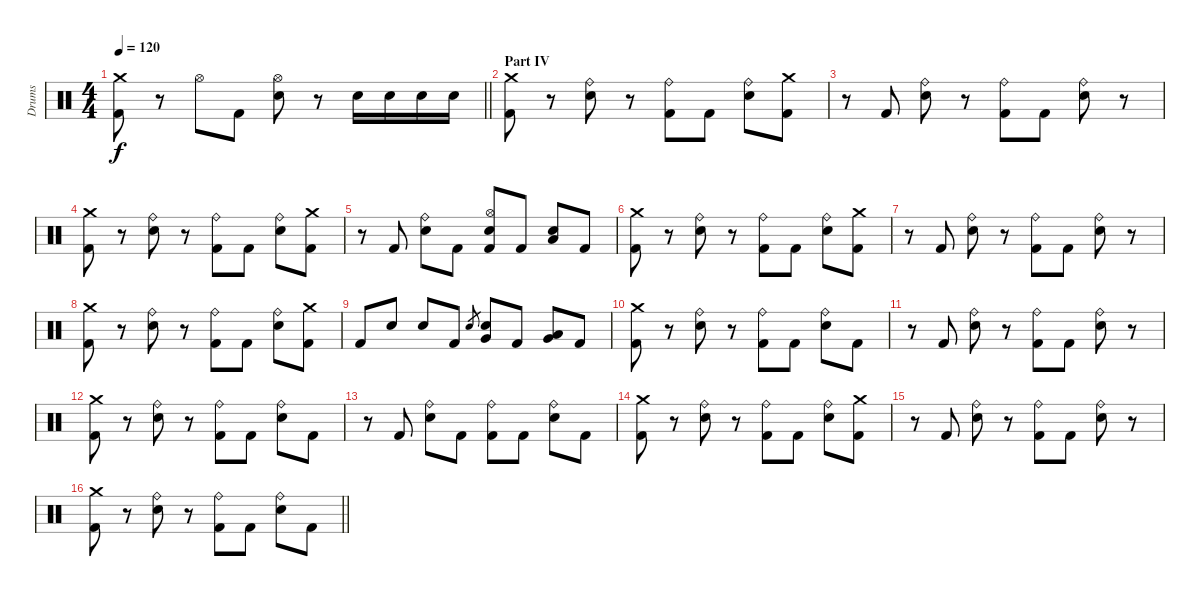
\track ("Drums" "Drums") {instrument percussion}
\staff {score}
\articulation defaults
\ts (4 4)
\tempo 120
\clef neutral
\barLineRight lightlight
\ks c
("Crash medium (hit)" "Kick (hit) 2").8{dy f} r.8 "Hi-Hat (open)".8 "Kick (hit) 2".8 ("Hi-Hat (open)" "Electric Snare (hit)").8 r.8 "Electric Snare (hit)".16 "Electric Snare (hit)".16 "Electric Snare (hit)".16 "Electric Snare (hit)".16 |
\section ("" "Part IV")
("Crash medium (hit)" "Kick (hit) 2").8 r.8 ("Ride (bell)" "Electric Snare (hit)").8 r.8 ("Ride (bell)" "Kick (hit) 2").8 "Kick (hit) 2".8 ("Ride (bell)" "Electric Snare (hit)").8 ("Crash medium (hit)" "Kick (hit) 2").8 |
r.8 "Kick (hit) 2".8 ("Ride (bell)" "Electric Snare (hit)").8 r.8 ("Ride (bell)" "Kick (hit) 2").8 "Kick (hit) 2".8 ("Ride (bell)" "Electric Snare (hit)").8 r.8 |
("Crash medium (hit)" "Kick (hit) 2").8 r.8 ("Ride (bell)" "Electric Snare (hit)").8 r.8 ("Ride (bell)" "Kick (hit) 2").8 "Kick (hit) 2".8 ("Ride (bell)" "Electric Snare (hit)").8 ("Crash medium (hit)" "Kick (hit) 2").8 |
r.8 "Kick (hit) 2".8 ("Ride (bell)" "Electric Snare (hit)").8 "Kick (hit) 2".8 ("Hi-Hat (open)" "Electric Snare (hit)" "Kick (hit) 2").8 "Kick (hit) 2".8 ("Electric Snare (hit)" "Low Floor Tom (hit)").8 "Kick (hit) 2".8 |
("Crash medium (hit)" "Kick (hit) 2").8 r.8 ("Ride (bell)" "Electric Snare (hit)").8 r.8 ("Ride (bell)" "Kick (hit) 2").8 "Kick (hit) 2".8 ("Ride (bell)" "Electric Snare (hit)").8 ("Crash medium (hit)" "Kick (hit) 2").8 |
r.8 "Kick (hit) 2".8 ("Ride (bell)" "Electric Snare (hit)").8 r.8 ("Ride (bell)" "Kick (hit) 2").8 "Kick (hit) 2".8 ("Ride (bell)" "Electric Snare (hit)").8 r.8 |
("Crash medium (hit)" "Kick (hit) 2").8 r.8 ("Ride (bell)" "Electric Snare (hit)").8 r.8 ("Ride (bell)" "Kick (hit) 2").8 "Kick (hit) 2".8 ("Ride (bell)" "Electric Snare (hit)").8 ("Crash medium (hit)" "Kick (hit) 2").8 |
"Kick (hit) 2".8 "Electric Snare (hit)".8 "Electric Snare (hit)".8 "Kick (hit) 2".8 "Electric Snare (hit)".8{gr} ("Electric Snare (hit)" "Very Low Tom (hit)").8 "Kick (hit) 2".8 ("Very Low Tom (hit)" "Low Floor Tom (hit)").8 "Kick (hit) 2".8 |
("Crash medium (hit)" "Kick (hit) 2").8 r.8 ("Ride (bell)" "Electric Snare (hit)").8 r.8 ("Ride (bell)" "Kick (hit) 2").8 "Kick (hit) 2".8 ("Ride (bell)" "Electric Snare (hit)").8 "Kick (hit) 2".8 |
r.8 "Kick (hit) 2".8 ("Ride (bell)" "Electric Snare (hit)").8 r.8 ("Ride (bell)" "Kick (hit) 2").8 "Kick (hit) 2".8 ("Ride (bell)" "Electric Snare (hit)").8 r.8 |
("Crash medium (hit)" "Kick (hit) 2").8 r.8 ("Ride (bell)" "Electric Snare (hit)").8 r.8 ("Ride (bell)" "Kick (hit) 2").8 "Kick (hit) 2".8 ("Ride (bell)" "Electric Snare (hit)").8 "Kick (hit) 2".8 |
r.8 "Kick (hit) 2".8 ("Ride (bell)" "Electric Snare (hit)").8 "Kick (hit) 2".8 ("Ride (bell)" "Kick (hit) 2").8 "Kick (hit) 2".8 ("Ride (bell)" "Electric Snare (hit)").8 "Kick (hit) 2".8 |
("Crash medium (hit)" "Kick (hit) 2").8 r.8 ("Ride (bell)" "Electric Snare (hit)").8 r.8 ("Ride (bell)" "Kick (hit) 2").8 "Kick (hit) 2".8 ("Ride (bell)" "Electric Snare (hit)").8 ("Crash medium (hit)" "Kick (hit) 2").8 |
r.8 "Kick (hit) 2".8 ("Ride (bell)" "Electric Snare (hit)").8 r.8 ("Ride (bell)" "Kick (hit) 2").8 "Kick (hit) 2".8 ("Ride (bell)" "Electric Snare (hit)").8 r.8 |
\barLineRight lightlight
("Crash medium (hit)" "Kick (hit) 2").8 r.8 ("Ride (bell)" "Electric Snare (hit)").8 r.8 ("Ride (bell)" "Kick (hit) 2").8 "Kick (hit) 2".8 ("Ride (bell)" "Electric Snare (hit)").8 "Kick (hit) 2".8
